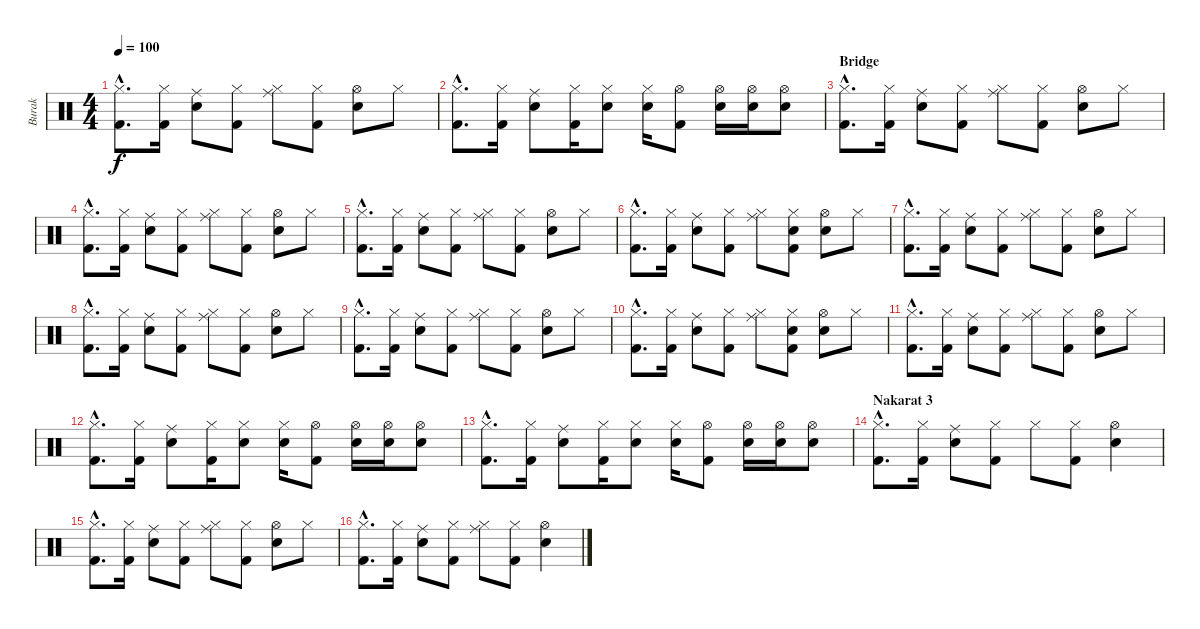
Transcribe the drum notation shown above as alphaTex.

\track ("Burak" "Burak") {instrument percussion}
\staff {score}
\articulation defaults
\ts (4 4)
\tempo 100
\clef neutral
\ks c
("Kick (hit) 2"{hac} "Hi-Hat (closed)"{hac}).8{d dy f} ("Kick (hit) 2" "Hi-Hat (closed)").16 ("Electric Snare (hit)" "Ride (middle)").8 ("Kick (hit) 2" "Hi-Hat (closed)").8 ("Ride (middle)" "Hi-Hat (closed)").8 ("Kick (hit) 2" "Hi-Hat (closed)").8 ("Electric Snare (hit)" "Hi-Hat (open)").8 "Hi-Hat (closed)".8 |
("Kick (hit) 2"{hac} "Hi-Hat (closed)"{hac}).8{d} ("Kick (hit) 2" "Hi-Hat (closed)").16 ("Electric Snare (hit)" "Ride (middle)").8 ("Kick (hit) 2" "Hi-Hat (closed)").16 ("Electric Snare (hit)" "Hi-Hat (closed)").8 ("Electric Snare (hit)" "Hi-Hat (closed)").16 ("Kick (hit) 2" "Hi-Hat (open)").8 ("Electric Snare (hit)" "Hi-Hat (open)").16 ("Electric Snare (hit)" "Hi-Hat (open)").16 ("Electric Snare (hit)" "Hi-Hat (open)").8 |
\section ("" "Bridge")
("Kick (hit) 2"{hac} "Hi-Hat (closed)"{hac}).8{d} ("Kick (hit) 2" "Hi-Hat (closed)").16 ("Electric Snare (hit)" "Ride (middle)").8 ("Kick (hit) 2" "Hi-Hat (closed)").8 ("Ride (middle)" "Hi-Hat (closed)").8 ("Kick (hit) 2" "Hi-Hat (closed)").8 ("Electric Snare (hit)" "Hi-Hat (open)").8 "Hi-Hat (closed)".8 |
("Kick (hit) 2"{hac} "Hi-Hat (closed)"{hac}).8{d} ("Kick (hit) 2" "Hi-Hat (closed)").16 ("Electric Snare (hit)" "Ride (middle)").8 ("Kick (hit) 2" "Hi-Hat (closed)").8 ("Ride (middle)" "Hi-Hat (closed)").8 ("Kick (hit) 2" "Hi-Hat (closed)").8 ("Electric Snare (hit)" "Hi-Hat (open)").8 "Hi-Hat (closed)".8 |
("Kick (hit) 2"{hac} "Hi-Hat (closed)"{hac}).8{d} ("Kick (hit) 2" "Hi-Hat (closed)").16 ("Electric Snare (hit)" "Ride (middle)").8 ("Kick (hit) 2" "Hi-Hat (closed)").8 ("Ride (middle)" "Hi-Hat (closed)").8 ("Kick (hit) 2" "Hi-Hat (closed)").8 ("Electric Snare (hit)" "Hi-Hat (open)").8 "Hi-Hat (closed)".8 |
("Kick (hit) 2"{hac} "Hi-Hat (closed)"{hac}).8{d} ("Kick (hit) 2" "Hi-Hat (closed)").16 ("Electric Snare (hit)" "Ride (middle)").8 ("Kick (hit) 2" "Hi-Hat (closed)").8 ("Ride (middle)" "Hi-Hat (closed)").8 ("Electric Snare (hit)" "Kick (hit) 2" "Hi-Hat (closed)").8 ("Electric Snare (hit)" "Hi-Hat (open)").8 "Hi-Hat (closed)".8 |
("Kick (hit) 2"{hac} "Hi-Hat (closed)"{hac}).8{d} ("Kick (hit) 2" "Hi-Hat (closed)").16 ("Electric Snare (hit)" "Ride (middle)").8 ("Kick (hit) 2" "Hi-Hat (closed)").8 ("Ride (middle)" "Hi-Hat (closed)").8 ("Kick (hit) 2" "Hi-Hat (closed)").8 ("Electric Snare (hit)" "Hi-Hat (open)").8 "Hi-Hat (closed)".8 |
("Kick (hit) 2"{hac} "Hi-Hat (closed)"{hac}).8{d} ("Kick (hit) 2" "Hi-Hat (closed)").16 ("Electric Snare (hit)" "Ride (middle)").8 ("Kick (hit) 2" "Hi-Hat (closed)").8 ("Ride (middle)" "Hi-Hat (closed)").8 ("Kick (hit) 2" "Hi-Hat (closed)").8 ("Electric Snare (hit)" "Hi-Hat (open)").8 "Hi-Hat (closed)".8 |
("Kick (hit) 2" "Hi-Hat (closed)"{hac}).8{d} ("Kick (hit) 2" "Hi-Hat (closed)").16 ("Electric Snare (hit)" "Ride (middle)").8 ("Kick (hit) 2" "Hi-Hat (closed)").8 ("Ride (middle)" "Hi-Hat (closed)").8 ("Kick (hit) 2" "Hi-Hat (closed)").8 ("Electric Snare (hit)" "Hi-Hat (open)").8 "Hi-Hat (closed)".8 |
("Kick (hit) 2"{hac} "Hi-Hat (closed)"{hac}).8{d} ("Kick (hit) 2" "Hi-Hat (closed)").16 ("Electric Snare (hit)" "Ride (middle)").8 ("Kick (hit) 2" "Hi-Hat (closed)").8 ("Ride (middle)" "Hi-Hat (closed)").8 ("Electric Snare (hit)" "Kick (hit) 2" "Hi-Hat (closed)").8 ("Electric Snare (hit)" "Hi-Hat (open)").8 "Hi-Hat (closed)".8 |
("Kick (hit) 2"{hac} "Hi-Hat (closed)"{hac}).8{d} ("Kick (hit) 2" "Hi-Hat (closed)").16 ("Electric Snare (hit)" "Ride (middle)").8 ("Kick (hit) 2" "Hi-Hat (closed)").8 ("Ride (middle)" "Hi-Hat (closed)").8 ("Kick (hit) 2" "Hi-Hat (closed)").8 ("Electric Snare (hit)" "Hi-Hat (open)").8 "Hi-Hat (closed)".8 |
("Kick (hit) 2"{hac} "Hi-Hat (closed)"{hac}).8{d} ("Kick (hit) 2" "Hi-Hat (closed)").16 ("Electric Snare (hit)" "Ride (middle)").8 ("Kick (hit) 2" "Hi-Hat (closed)").16 ("Electric Snare (hit)" "Hi-Hat (closed)").8 ("Electric Snare (hit)" "Hi-Hat (closed)").16 ("Kick (hit) 2" "Hi-Hat (open)").8 ("Electric Snare (hit)" "Hi-Hat (open)").16 ("Electric Snare (hit)" "Hi-Hat (open)").16 ("Electric Snare (hit)" "Hi-Hat (open)").8 |
("Kick (hit) 2"{hac} "Hi-Hat (closed)"{hac}).8{d} ("Kick (hit) 2" "Hi-Hat (closed)").16 ("Electric Snare (hit)" "Ride (middle)").8 ("Kick (hit) 2" "Hi-Hat (closed)").16 ("Electric Snare (hit)" "Hi-Hat (closed)").8 ("Electric Snare (hit)" "Hi-Hat (closed)").16 ("Kick (hit) 2" "Hi-Hat (open)").8 ("Electric Snare (hit)" "Hi-Hat (open)").16 ("Electric Snare (hit)" "Hi-Hat (open)").16 ("Electric Snare (hit)" "Hi-Hat (open)").8 |
\section ("" "Nakarat 3")
("Kick (hit) 2"{hac} "Hi-Hat (closed)"{hac}).8{d} ("Kick (hit) 2" "Hi-Hat (closed)").16 ("Electric Snare (hit)" "Ride (middle)").8 ("Kick (hit) 2" "Hi-Hat (closed)").8 "Hi-Hat (closed)".8 ("Kick (hit) 2" "Hi-Hat (closed)").8 ("Electric Snare (hit)" "Hi-Hat (open)").4 |
("Kick (hit) 2"{hac} "Hi-Hat (closed)"{hac}).8{d} ("Kick (hit) 2" "Hi-Hat (closed)").16 ("Electric Snare (hit)" "Ride (middle)").8 ("Kick (hit) 2" "Hi-Hat (closed)").8 ("Ride (middle)" "Hi-Hat (closed)").8 ("Kick (hit) 2" "Hi-Hat (closed)").8 ("Electric Snare (hit)" "Hi-Hat (open)").8 "Hi-Hat (closed)".8 |
("Kick (hit) 2"{hac} "Hi-Hat (closed)"{hac}).8{d} ("Kick (hit) 2" "Hi-Hat (closed)").16 ("Electric Snare (hit)" "Ride (middle)").8 ("Kick (hit) 2" "Hi-Hat (closed)").8 ("Ride (middle)" "Hi-Hat (closed)").8 ("Kick (hit) 2" "Hi-Hat (closed)").8 ("Electric Snare (hit)" "Hi-Hat (open)").4
